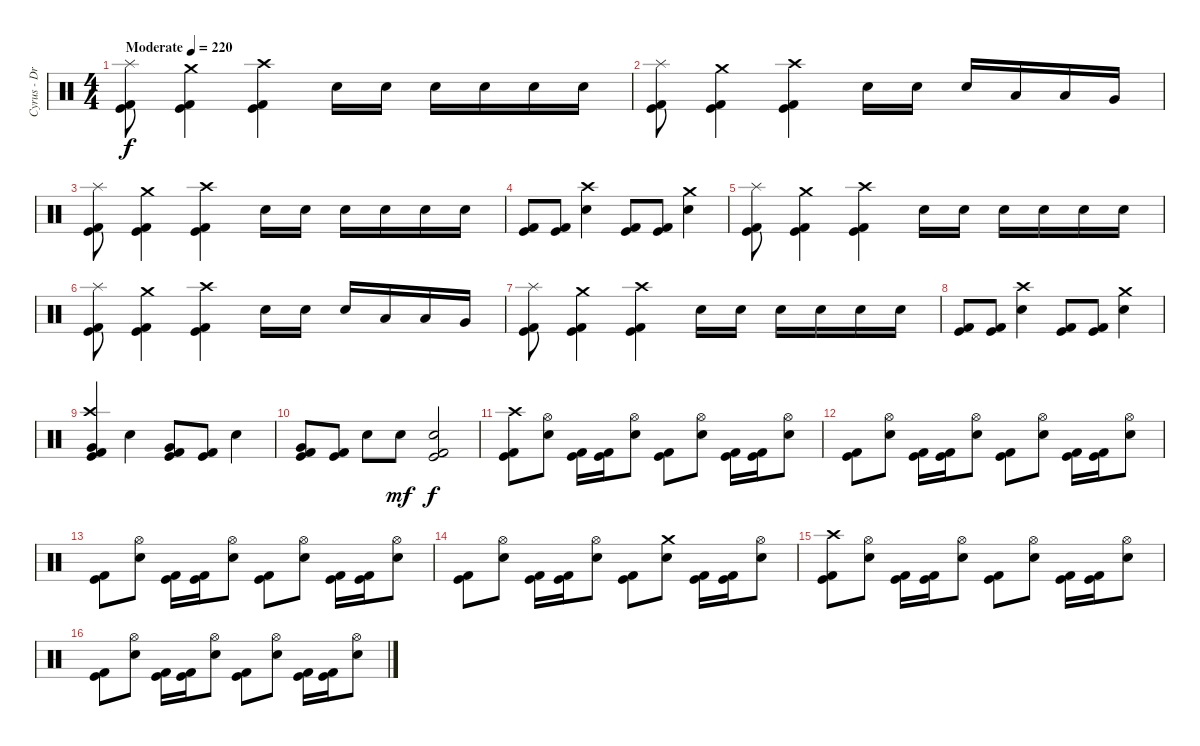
\track ("Cyrus - Drums" "Cyrus - Dr") {instrument percussion}
\staff {score}
\articulation defaults
\ts (4 4)
\tempo (220 "Moderate")
\clef neutral
\ks c
("Kick (hit)" "Kick (hit) 2" "Splash (hit)").8{dy f} ("Kick (hit)" "Kick (hit) 2" "Crash medium (hit)").4 ("Kick (hit)" "Kick (hit) 2" "Crash high (hit)").4 "Electric Snare (hit)".16 "Electric Snare (hit)".16 "Electric Snare (hit)".16 "Electric Snare (hit)".16 "Electric Snare (hit)".16 "Electric Snare (hit)".16 |
("Kick (hit)" "Kick (hit) 2" "Splash (hit)").8 ("Kick (hit)" "Kick (hit) 2" "Crash medium (hit)").4 ("Kick (hit)" "Kick (hit) 2" "Crash high (hit)").4 "Electric Snare (hit)".16 "Electric Snare (hit)".16 "Electric Snare (hit)".16 "Low Tom (hit)".16 "Low Tom (hit)".16 "Very Low Tom (hit)".16 |
("Kick (hit)" "Kick (hit) 2" "Splash (hit)").8 ("Kick (hit)" "Kick (hit) 2" "Crash medium (hit)").4 ("Kick (hit)" "Kick (hit) 2" "Crash high (hit)").4 "Electric Snare (hit)".16 "Electric Snare (hit)".16 "Electric Snare (hit)".16 "Electric Snare (hit)".16 "Electric Snare (hit)".16 "Electric Snare (hit)".16 |
("Kick (hit)" "Kick (hit) 2").8 ("Kick (hit)" "Kick (hit) 2").8 ("Electric Snare (hit)" "Crash high (hit)").4 ("Kick (hit)" "Kick (hit) 2").8 ("Kick (hit)" "Kick (hit) 2").8 ("Electric Snare (hit)" "Crash medium (hit)").4 |
("Kick (hit)" "Kick (hit) 2" "Splash (hit)").8 ("Kick (hit)" "Kick (hit) 2" "Crash medium (hit)").4 ("Kick (hit)" "Kick (hit) 2" "Crash high (hit)").4 "Electric Snare (hit)".16 "Electric Snare (hit)".16 "Electric Snare (hit)".16 "Electric Snare (hit)".16 "Electric Snare (hit)".16 "Electric Snare (hit)".16 |
("Kick (hit)" "Kick (hit) 2" "Splash (hit)").8 ("Kick (hit)" "Kick (hit) 2" "Crash medium (hit)").4 ("Kick (hit)" "Kick (hit) 2" "Crash high (hit)").4 "Electric Snare (hit)".16 "Electric Snare (hit)".16 "Electric Snare (hit)".16 "Low Tom (hit)".16 "Low Tom (hit)".16 "Very Low Tom (hit)".16 |
("Kick (hit)" "Kick (hit) 2" "Splash (hit)").8 ("Kick (hit)" "Kick (hit) 2" "Crash medium (hit)").4 ("Kick (hit)" "Kick (hit) 2" "Crash high (hit)").4 "Electric Snare (hit)".16 "Electric Snare (hit)".16 "Electric Snare (hit)".16 "Electric Snare (hit)".16 "Electric Snare (hit)".16 "Electric Snare (hit)".16 |
("Kick (hit)" "Kick (hit) 2").8 ("Kick (hit)" "Kick (hit) 2").8 ("Electric Snare (hit)" "Crash high (hit)").4 ("Kick (hit)" "Kick (hit) 2").8 ("Kick (hit)" "Kick (hit) 2").8 ("Electric Snare (hit)" "Crash medium (hit)").4 |
("Kick (hit)" "Kick (hit) 2" "Very Low Tom (hit)" "Crash high (hit)").4 "Electric Snare (hit)".4 ("Kick (hit)" "Kick (hit) 2" "Very Low Tom (hit)").8 ("Kick (hit)" "Kick (hit) 2").8 "Electric Snare (hit)".4 |
("Kick (hit)" "Kick (hit) 2" "Very Low Tom (hit)").8 ("Kick (hit)" "Kick (hit) 2").8 "Electric Snare (hit)".8 "Electric Snare (hit)".8{dy mf} ("Kick (hit)" "Kick (hit) 2" "Electric Snare (hit)").2{dy f} |
("Kick (hit)" "Kick (hit) 2" "Crash high (hit)").8 ("Electric Snare (hit)" "Hi-Hat (open)").8 ("Kick (hit)" "Kick (hit) 2").16 ("Kick (hit)" "Kick (hit) 2").16 ("Electric Snare (hit)" "Hi-Hat (open)").8 ("Kick (hit)" "Kick (hit) 2").8 ("Electric Snare (hit)" "Hi-Hat (open)").8 ("Kick (hit)" "Kick (hit) 2").16 ("Kick (hit)" "Kick (hit) 2").16 ("Electric Snare (hit)" "Hi-Hat (open)").8 |
("Kick (hit)" "Kick (hit) 2").8 ("Electric Snare (hit)" "Hi-Hat (open)").8 ("Kick (hit)" "Kick (hit) 2").16 ("Kick (hit)" "Kick (hit) 2").16 ("Electric Snare (hit)" "Hi-Hat (open)").8 ("Kick (hit)" "Kick (hit) 2").8 ("Electric Snare (hit)" "Hi-Hat (open)").8 ("Kick (hit)" "Kick (hit) 2").16 ("Kick (hit)" "Kick (hit) 2").16 ("Electric Snare (hit)" "Hi-Hat (open)").8 |
("Kick (hit)" "Kick (hit) 2").8 ("Electric Snare (hit)" "Hi-Hat (open)").8 ("Kick (hit)" "Kick (hit) 2").16 ("Kick (hit)" "Kick (hit) 2").16 ("Electric Snare (hit)" "Hi-Hat (open)").8 ("Kick (hit)" "Kick (hit) 2").8 ("Electric Snare (hit)" "Hi-Hat (open)").8 ("Kick (hit)" "Kick (hit) 2").16 ("Kick (hit)" "Kick (hit) 2").16 ("Electric Snare (hit)" "Hi-Hat (open)").8 |
("Kick (hit)" "Kick (hit) 2").8 ("Electric Snare (hit)" "Hi-Hat (open)").8 ("Kick (hit)" "Kick (hit) 2").16 ("Kick (hit)" "Kick (hit) 2").16 ("Electric Snare (hit)" "Hi-Hat (open)").8 ("Kick (hit)" "Kick (hit) 2").8 ("Electric Snare (hit)" "Crash medium (hit)").8 ("Kick (hit)" "Kick (hit) 2").16 ("Kick (hit)" "Kick (hit) 2").16 ("Electric Snare (hit)" "Hi-Hat (open)").8 |
("Kick (hit)" "Kick (hit) 2" "Crash high (hit)").8 ("Electric Snare (hit)" "Hi-Hat (open)").8 ("Kick (hit)" "Kick (hit) 2").16 ("Kick (hit)" "Kick (hit) 2").16 ("Electric Snare (hit)" "Hi-Hat (open)").8 ("Kick (hit)" "Kick (hit) 2").8 ("Electric Snare (hit)" "Hi-Hat (open)").8 ("Kick (hit)" "Kick (hit) 2").16 ("Kick (hit)" "Kick (hit) 2").16 ("Electric Snare (hit)" "Hi-Hat (open)").8 |
("Kick (hit)" "Kick (hit) 2").8 ("Electric Snare (hit)" "Hi-Hat (open)").8 ("Kick (hit)" "Kick (hit) 2").16 ("Kick (hit)" "Kick (hit) 2").16 ("Electric Snare (hit)" "Hi-Hat (open)").8 ("Kick (hit)" "Kick (hit) 2").8 ("Electric Snare (hit)" "Hi-Hat (open)").8 ("Kick (hit)" "Kick (hit) 2").16 ("Kick (hit)" "Kick (hit) 2").16 ("Electric Snare (hit)" "Hi-Hat (open)").8
